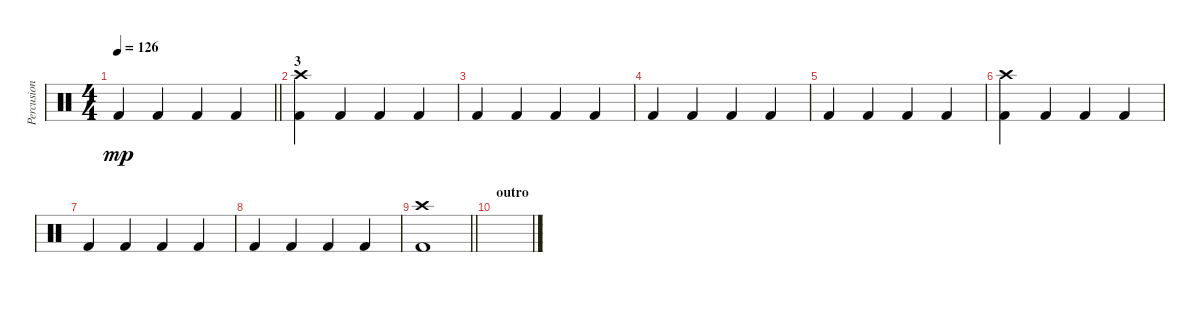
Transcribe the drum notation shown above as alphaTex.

\track ("Percusion" "Percusion") {instrument percussion}
\staff {score}
\articulation defaults
\ts (4 4)
\tempo 126
\clef neutral
\barLineRight lightlight
\ks c "Kick (hit) 2".4{dy mp} "Kick (hit) 2".4 "Kick (hit) 2".4 "Kick (hit) 2".4
|
\section ("" "3")
("Crash high (hit)" "Kick (hit) 2").4 "Kick (hit) 2".4 "Kick (hit) 2".4 "Kick (hit) 2".4 |
"Kick (hit) 2".4 "Kick (hit) 2".4 "Kick (hit) 2".4 "Kick (hit) 2".4 |
"Kick (hit) 2".4 "Kick (hit) 2".4 "Kick (hit) 2".4 "Kick (hit) 2".4 |
"Kick (hit) 2".4 "Kick (hit) 2".4 "Kick (hit) 2".4 "Kick (hit) 2".4 |
("Crash high (hit)" "Kick (hit) 2").4 "Kick (hit) 2".4 "Kick (hit) 2".4 "Kick (hit) 2".4 |
"Kick (hit) 2".4 "Kick (hit) 2".4 "Kick (hit) 2".4 "Kick (hit) 2".4 |
"Kick (hit) 2".4 "Kick (hit) 2".4 "Kick (hit) 2".4 "Kick (hit) 2".4 |
\barLineRight lightlight
("Crash high (hit)" "Kick (hit) 2").1 |
\section ("" "outro")
